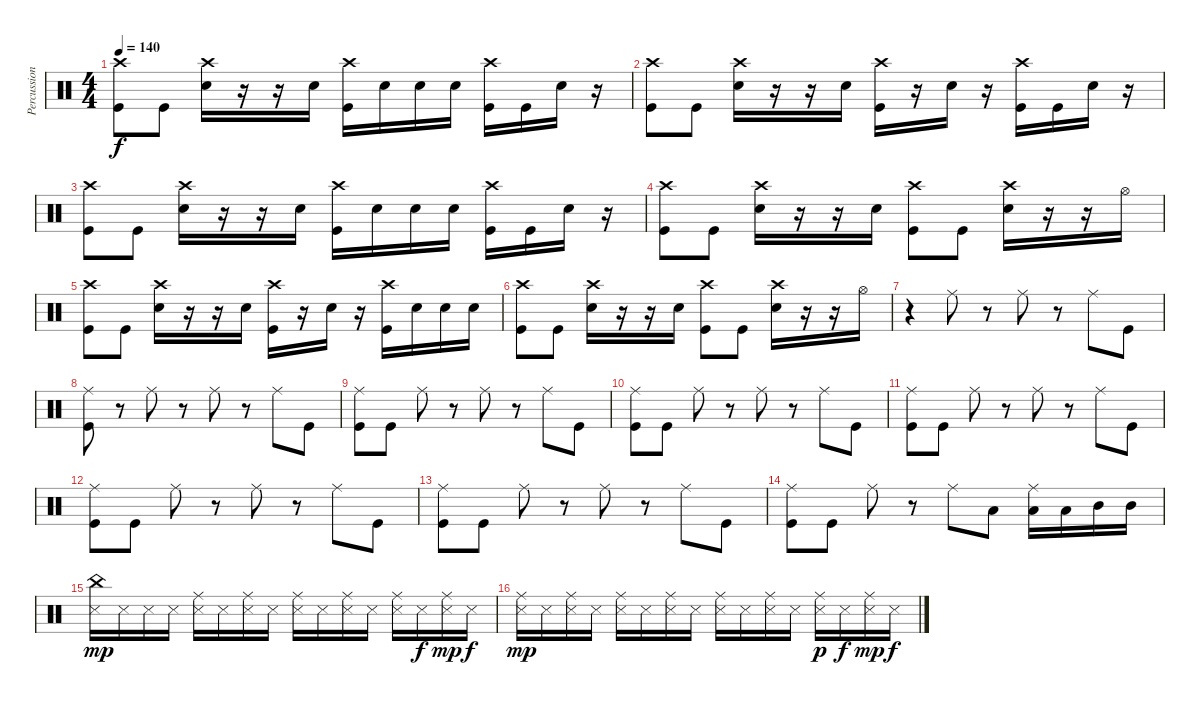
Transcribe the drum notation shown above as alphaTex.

\track ("Percussion" "Percussion") {instrument percussion}
\staff {score}
\articulation defaults
\ts (4 4)
\tempo 140
\clef neutral
\ks c
("Crash high (hit)" "Kick (hit)").8{dy f} "Kick (hit)".8 ("Crash high (hit)" "Snare (hit) 2").16 r.16 r.16 "Snare (hit) 2".16 ("Crash high (hit)" "Kick (hit)").16 "Snare (hit) 2".16 "Snare (hit) 2".16 "Snare (hit) 2".16 ("Crash high (hit)" "Kick (hit)").16 "Kick (hit)".16 "Snare (hit) 2".16 r.16 |
("Crash high (hit)" "Kick (hit)").8 "Kick (hit)".8 ("Crash high (hit)" "Snare (hit) 2").16 r.16 r.16 "Snare (hit) 2".16 ("Crash high (hit)" "Kick (hit)").16 r.16 "Snare (hit) 2".16 r.16 ("Crash high (hit)" "Kick (hit)").16 "Kick (hit)".16 "Snare (hit) 2".16 r.16 |
("Crash high (hit)" "Kick (hit)").8 "Kick (hit)".8 ("Crash high (hit)" "Snare (hit) 2").16 r.16 r.16 "Snare (hit) 2".16 ("Crash high (hit)" "Kick (hit)").16 "Snare (hit) 2".16 "Snare (hit) 2".16 "Snare (hit) 2".16 ("Crash high (hit)" "Kick (hit)").16 "Kick (hit)".16 "Snare (hit) 2".16 r.16 |
("Crash high (hit)" "Kick (hit)").8 "Kick (hit)".8 ("Crash high (hit)" "Snare (hit) 2").16 r.16 r.16 "Snare (hit) 2".16 ("Crash high (hit)" "Kick (hit)").8 "Kick (hit)".8 ("Crash high (hit)" "Snare (hit) 2").16 r.16 r.16 "Hi-Hat (open)".16 |
("Crash high (hit)" "Kick (hit)").8 "Kick (hit)".8 ("Crash high (hit)" "Snare (hit) 2").16 r.16 r.16 "Snare (hit) 2".16 ("Crash high (hit)" "Kick (hit)").16 r.16 "Snare (hit) 2".16 r.16 ("Crash high (hit)" "Kick (hit)").16 "Snare (hit) 2".16 "Snare (hit) 2".16 "Snare (hit) 2".16 |
("Crash high (hit)" "Kick (hit)").8 "Kick (hit)".8 ("Crash high (hit)" "Snare (hit) 2").16 r.16 r.16 "Snare (hit) 2".16 ("Crash high (hit)" "Kick (hit)").8 "Kick (hit)".8 ("Crash high (hit)" "Snare (hit) 2").16 r.16 r.16 "Hi-Hat (open)".16 |
r.4 "Ride (middle)".8 r.8 "Ride (middle)".8 r.8 "Ride (middle)".8 "Kick (hit)".8 |
("Ride (middle)" "Kick (hit)").8 r.8 "Ride (middle)".8 r.8 "Ride (middle)".8 r.8 "Ride (middle)".8 "Kick (hit)".8 |
("Ride (middle)" "Kick (hit)").8 "Kick (hit)".8 "Ride (middle)".8 r.8 "Ride (middle)".8 r.8 "Ride (middle)".8 "Kick (hit)".8 |
("Ride (middle)" "Kick (hit)").8 "Kick (hit)".8 "Ride (middle)".8 r.8 "Ride (middle)".8 r.8 "Ride (middle)".8 "Kick (hit)".8 |
("Ride (middle)" "Kick (hit)").8 "Kick (hit)".8 "Ride (middle)".8 r.8 "Ride (middle)".8 r.8 "Ride (middle)".8 "Kick (hit)".8 |
("Ride (middle)" "Kick (hit)").8 "Kick (hit)".8 "Ride (middle)".8 r.8 "Ride (middle)".8 r.8 "Ride (middle)".8 "Kick (hit)".8 |
("Ride (middle)" "Kick (hit)").8 "Kick (hit)".8 "Ride (middle)".8 r.8 "Ride (middle)".8 r.8 "Ride (middle)".8 "Kick (hit)".8 |
("Ride (middle)" "Kick (hit)").8 "Kick (hit)".8 "Ride (middle)".8 r.8 "Ride (middle)".8 "Low Tom (hit)".8 ("Ride (middle)" "Low Tom (hit)").16 "Low Tom (hit)".16 "Mid Tom (hit)".16 "Mid Tom (hit)".16 |
("China (hit)" "Snare (side stick) 3").16{dy mp} "Snare (side stick) 3".16 "Snare (side stick) 3".16 "Snare (side stick) 3".16 ("Ride (middle)" "Snare (side stick) 3").16 "Snare (side stick) 3".16 ("Ride (middle)" "Snare (side stick) 3").16 "Snare (side stick) 3".16 ("Ride (middle)" "Snare (side stick) 3").16 "Snare (side stick) 3".16 ("Ride (middle)" "Snare (side stick) 3").16 "Snare (side stick) 3".16 ("Ride (middle)" "Snare (side stick) 3").16 "Snare (side stick) 3".16{dy f} ("Ride (middle)" "Snare (side stick) 3").16{dy mp} "Snare (side stick) 3".16{dy f} |
("Ride (middle)" "Snare (side stick) 3").16{dy mp} "Snare (side stick) 3".16 ("Ride (middle)" "Snare (side stick) 3").16 "Snare (side stick) 3".16 ("Ride (middle)" "Snare (side stick) 3").16 "Snare (side stick) 3".16 ("Ride (middle)" "Snare (side stick) 3").16 "Snare (side stick) 3".16 ("Ride (middle)" "Snare (side stick) 3").16 "Snare (side stick) 3".16 ("Ride (middle)" "Snare (side stick) 3").16 "Snare (side stick) 3".16 ("Ride (middle)" "Snare (side stick) 3").16{dy p} "Snare (side stick) 3".16{dy f} ("Ride (middle)" "Snare (side stick) 3").16{dy mp} "Snare (side stick) 3".16{dy f}
